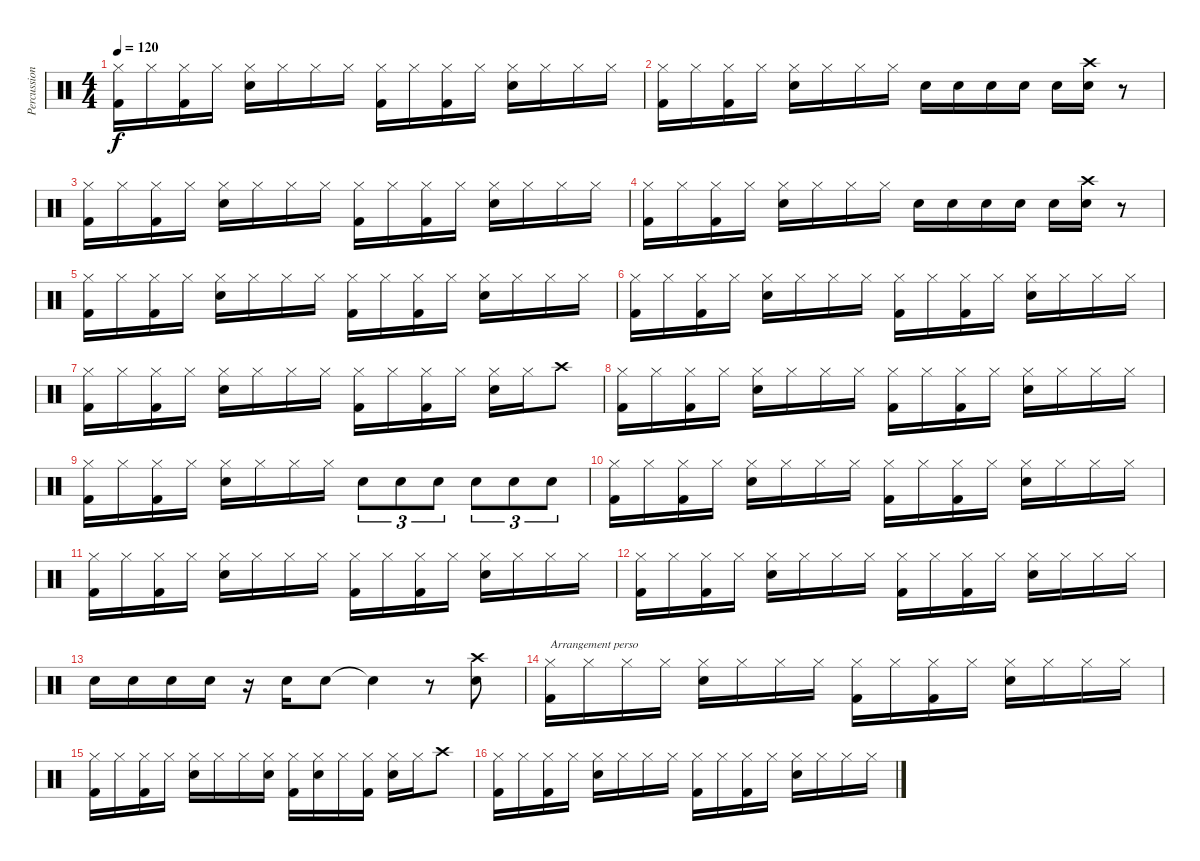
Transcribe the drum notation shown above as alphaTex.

\track ("Percussions" "Percussion") {instrument percussion}
\staff {score}
\articulation defaults
\ts (4 4)
\tempo 120
\clef neutral
\ks c
("Hi-Hat (closed)" "Kick (hit) 2").16{dy f} "Hi-Hat (closed)".16 ("Hi-Hat (closed)" "Kick (hit) 2").16 "Hi-Hat (closed)".16 ("Hi-Hat (closed)" "Electric Snare (hit)").16 "Hi-Hat (closed)".16 "Hi-Hat (closed)".16 "Hi-Hat (closed)".16 ("Hi-Hat (closed)" "Kick (hit) 2").16 "Hi-Hat (closed)".16 ("Hi-Hat (closed)" "Kick (hit) 2").16 "Hi-Hat (closed)".16 ("Hi-Hat (closed)" "Electric Snare (hit)").16 "Hi-Hat (closed)".16 "Hi-Hat (closed)".16 "Hi-Hat (closed)".16 |
("Hi-Hat (closed)" "Kick (hit) 2").16 "Hi-Hat (closed)".16 ("Hi-Hat (closed)" "Kick (hit) 2").16 "Hi-Hat (closed)".16 ("Hi-Hat (closed)" "Electric Snare (hit)").16 "Hi-Hat (closed)".16 "Hi-Hat (closed)".16 "Hi-Hat (closed)".16 "Electric Snare (hit)".16 "Electric Snare (hit)".16 "Electric Snare (hit)".16 "Electric Snare (hit)".16 "Electric Snare (hit)".16 ("Crash high (hit)" "Electric Snare (hit)").16 r.8 |
("Hi-Hat (closed)" "Kick (hit) 2").16 "Hi-Hat (closed)".16 ("Hi-Hat (closed)" "Kick (hit) 2").16 "Hi-Hat (closed)".16 ("Hi-Hat (closed)" "Electric Snare (hit)").16 "Hi-Hat (closed)".16 "Hi-Hat (closed)".16 "Hi-Hat (closed)".16 ("Hi-Hat (closed)" "Kick (hit) 2").16 "Hi-Hat (closed)".16 ("Hi-Hat (closed)" "Kick (hit) 2").16 "Hi-Hat (closed)".16 ("Hi-Hat (closed)" "Electric Snare (hit)").16 "Hi-Hat (closed)".16 "Hi-Hat (closed)".16 "Hi-Hat (closed)".16 |
("Hi-Hat (closed)" "Kick (hit) 2").16 "Hi-Hat (closed)".16 ("Hi-Hat (closed)" "Kick (hit) 2").16 "Hi-Hat (closed)".16 ("Hi-Hat (closed)" "Electric Snare (hit)").16 "Hi-Hat (closed)".16 "Hi-Hat (closed)".16 "Hi-Hat (closed)".16 "Electric Snare (hit)".16 "Electric Snare (hit)".16 "Electric Snare (hit)".16 "Electric Snare (hit)".16 "Electric Snare (hit)".16 ("Crash high (hit)" "Electric Snare (hit)").16 r.8 |
("Hi-Hat (closed)" "Kick (hit) 2").16 "Hi-Hat (closed)".16 ("Hi-Hat (closed)" "Kick (hit) 2").16 "Hi-Hat (closed)".16 ("Hi-Hat (closed)" "Electric Snare (hit)").16 "Hi-Hat (closed)".16 "Hi-Hat (closed)".16 "Hi-Hat (closed)".16 ("Hi-Hat (closed)" "Kick (hit) 2").16 "Hi-Hat (closed)".16 ("Hi-Hat (closed)" "Kick (hit) 2").16 "Hi-Hat (closed)".16 ("Hi-Hat (closed)" "Electric Snare (hit)").16 "Hi-Hat (closed)".16 "Hi-Hat (closed)".16 "Hi-Hat (closed)".16 |
("Hi-Hat (closed)" "Kick (hit) 2").16 "Hi-Hat (closed)".16 ("Hi-Hat (closed)" "Kick (hit) 2").16 "Hi-Hat (closed)".16 ("Hi-Hat (closed)" "Electric Snare (hit)").16 "Hi-Hat (closed)".16 "Hi-Hat (closed)".16 "Hi-Hat (closed)".16 ("Hi-Hat (closed)" "Kick (hit) 2").16 "Hi-Hat (closed)".16 ("Hi-Hat (closed)" "Kick (hit) 2").16 "Hi-Hat (closed)".16 ("Hi-Hat (closed)" "Electric Snare (hit)").16 "Hi-Hat (closed)".16 "Hi-Hat (closed)".16 "Hi-Hat (closed)".16 |
("Hi-Hat (closed)" "Kick (hit) 2").16 "Hi-Hat (closed)".16 ("Hi-Hat (closed)" "Kick (hit) 2").16 "Hi-Hat (closed)".16 ("Hi-Hat (closed)" "Electric Snare (hit)").16 "Hi-Hat (closed)".16 "Hi-Hat (closed)".16 "Hi-Hat (closed)".16 ("Hi-Hat (closed)" "Kick (hit) 2").16 "Hi-Hat (closed)".16 ("Hi-Hat (closed)" "Kick (hit) 2").16 "Hi-Hat (closed)".16 ("Hi-Hat (closed)" "Electric Snare (hit)").16 "Hi-Hat (closed)".16 "Crash high (hit)".8 |
("Hi-Hat (closed)" "Kick (hit) 2").16 "Hi-Hat (closed)".16 ("Hi-Hat (closed)" "Kick (hit) 2").16 "Hi-Hat (closed)".16 ("Hi-Hat (closed)" "Electric Snare (hit)").16 "Hi-Hat (closed)".16 "Hi-Hat (closed)".16 "Hi-Hat (closed)".16 ("Hi-Hat (closed)" "Kick (hit) 2").16 "Hi-Hat (closed)".16 ("Hi-Hat (closed)" "Kick (hit) 2").16 "Hi-Hat (closed)".16 ("Hi-Hat (closed)" "Electric Snare (hit)").16 "Hi-Hat (closed)".16 "Hi-Hat (closed)".16 "Hi-Hat (closed)".16 |
("Hi-Hat (closed)" "Kick (hit) 2").16 "Hi-Hat (closed)".16 ("Hi-Hat (closed)" "Kick (hit) 2").16 "Hi-Hat (closed)".16 ("Hi-Hat (closed)" "Electric Snare (hit)").16 "Hi-Hat (closed)".16 "Hi-Hat (closed)".16 "Hi-Hat (closed)".16 "Electric Snare (hit)".8{tu (3 2)} "Electric Snare (hit)".8{tu (3 2)} "Electric Snare (hit)".8{tu (3 2)} "Electric Snare (hit)".8{tu (3 2)} "Electric Snare (hit)".8{tu (3 2)} "Electric Snare (hit)".8{tu (3 2)} |
("Hi-Hat (closed)" "Kick (hit) 2").16 "Hi-Hat (closed)".16 ("Hi-Hat (closed)" "Kick (hit) 2").16 "Hi-Hat (closed)".16 ("Hi-Hat (closed)" "Electric Snare (hit)").16 "Hi-Hat (closed)".16 "Hi-Hat (closed)".16 "Hi-Hat (closed)".16 ("Hi-Hat (closed)" "Kick (hit) 2").16 "Hi-Hat (closed)".16 ("Hi-Hat (closed)" "Kick (hit) 2").16 "Hi-Hat (closed)".16 ("Hi-Hat (closed)" "Electric Snare (hit)").16 "Hi-Hat (closed)".16 "Hi-Hat (closed)".16 "Hi-Hat (closed)".16 |
("Hi-Hat (closed)" "Kick (hit) 2").16 "Hi-Hat (closed)".16 ("Hi-Hat (closed)" "Kick (hit) 2").16 "Hi-Hat (closed)".16 ("Hi-Hat (closed)" "Electric Snare (hit)").16 "Hi-Hat (closed)".16 "Hi-Hat (closed)".16 "Hi-Hat (closed)".16 ("Hi-Hat (closed)" "Kick (hit) 2").16 "Hi-Hat (closed)".16 ("Hi-Hat (closed)" "Kick (hit) 2").16 "Hi-Hat (closed)".16 ("Hi-Hat (closed)" "Electric Snare (hit)").16 "Hi-Hat (closed)".16 "Hi-Hat (closed)".16 "Hi-Hat (closed)".16 |
("Hi-Hat (closed)" "Kick (hit) 2").16 "Hi-Hat (closed)".16 ("Hi-Hat (closed)" "Kick (hit) 2").16 "Hi-Hat (closed)".16 ("Hi-Hat (closed)" "Electric Snare (hit)").16 "Hi-Hat (closed)".16 "Hi-Hat (closed)".16 "Hi-Hat (closed)".16 ("Hi-Hat (closed)" "Kick (hit) 2").16 "Hi-Hat (closed)".16 ("Hi-Hat (closed)" "Kick (hit) 2").16 "Hi-Hat (closed)".16 ("Hi-Hat (closed)" "Electric Snare (hit)").16 "Hi-Hat (closed)".16 "Hi-Hat (closed)".16 "Hi-Hat (closed)".16 |
"Electric Snare (hit)".16 "Electric Snare (hit)".16 "Electric Snare (hit)".16 "Electric Snare (hit)".16 r.16 "Electric Snare (hit)".16 "Electric Snare (hit)".8 "Snare (hit)"{t}.4 r.8 ("Crash high (hit)" "Electric Snare (hit)").8 |
("Hi-Hat (closed)" "Kick (hit) 2").16{txt "Arrangement perso"} "Hi-Hat (closed)".16 "Hi-Hat (closed)".16 "Hi-Hat (closed)".16 ("Hi-Hat (closed)" "Electric Snare (hit)").16 "Hi-Hat (closed)".16 "Hi-Hat (closed)".16 "Hi-Hat (closed)".16 ("Hi-Hat (closed)" "Kick (hit) 2").16 "Hi-Hat (closed)".16 ("Hi-Hat (closed)" "Kick (hit) 2").16 "Hi-Hat (closed)".16 ("Hi-Hat (closed)" "Electric Snare (hit)").16 "Hi-Hat (closed)".16 "Hi-Hat (closed)".16 "Hi-Hat (closed)".16 |
("Hi-Hat (closed)" "Kick (hit) 2").16 "Hi-Hat (closed)".16 ("Hi-Hat (closed)" "Kick (hit) 2").16 "Hi-Hat (closed)".16 ("Hi-Hat (closed)" "Electric Snare (hit)").16 "Hi-Hat (closed)".16 "Hi-Hat (closed)".16 ("Hi-Hat (closed)" "Electric Snare (hit)").16 ("Hi-Hat (closed)" "Kick (hit) 2").16 ("Hi-Hat (closed)" "Electric Snare (hit)").16 "Hi-Hat (closed)".16 ("Hi-Hat (closed)" "Kick (hit) 2").16 ("Hi-Hat (closed)" "Electric Snare (hit)").16 "Hi-Hat (closed)".16 "Crash high (hit)".8 |
("Hi-Hat (closed)" "Kick (hit) 2").16 "Hi-Hat (closed)".16 ("Hi-Hat (closed)" "Kick (hit) 2").16 "Hi-Hat (closed)".16 ("Hi-Hat (closed)" "Electric Snare (hit)").16 "Hi-Hat (closed)".16 "Hi-Hat (closed)".16 "Hi-Hat (closed)".16 ("Hi-Hat (closed)" "Kick (hit) 2").16 "Hi-Hat (closed)".16 ("Hi-Hat (closed)" "Kick (hit) 2").16 "Hi-Hat (closed)".16 ("Hi-Hat (closed)" "Electric Snare (hit)").16 "Hi-Hat (closed)".16 "Hi-Hat (closed)".16 "Hi-Hat (closed)".16
